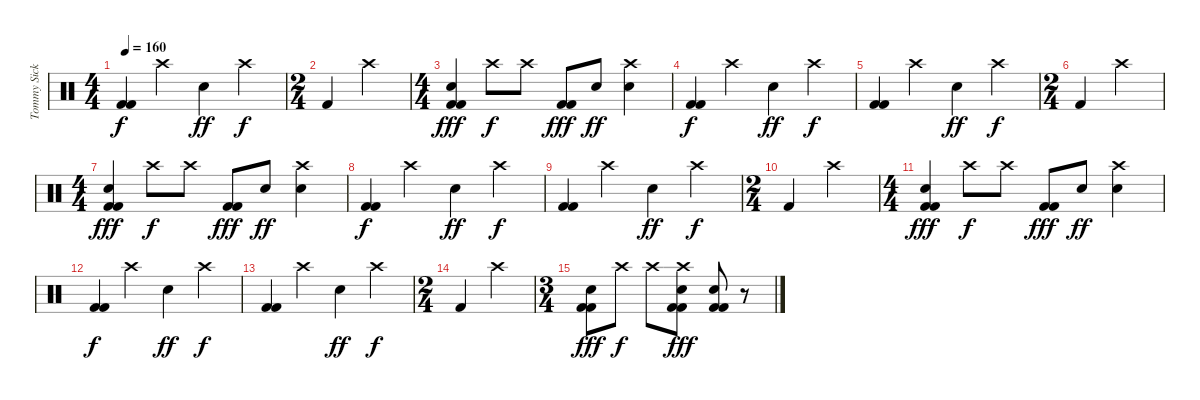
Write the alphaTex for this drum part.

\track ("Tommy Sickles" "Tommy Sick") {instrument percussion}
\staff {score}
\articulation defaults
\ts (4 4)
\tempo 160
\clef neutral
\ks c
("Kick (hit) 2" "Kick (hit) 2").4{dy f} "Crash high (hit)".4 "Electric Snare (hit)".4{dy ff} "Crash high (hit)".4{dy f} |
\ts (2 4)
"Kick (hit) 2".4 "Crash high (hit)".4 |
\ts (4 4)
("Kick (hit) 2" "Kick (hit) 2" "Electric Snare (hit)").4{dy fff} "Crash high (hit)".8{dy f} "Crash high (hit)".8 ("Kick (hit) 2" "Kick (hit) 2").8{dy fff} "Electric Snare (hit)".8{dy ff} ("Crash high (hit)" "Electric Snare (hit)").4 |
("Kick (hit) 2" "Kick (hit) 2").4{dy f} "Crash high (hit)".4 "Electric Snare (hit)".4{dy ff} "Crash high (hit)".4{dy f} |
("Kick (hit) 2" "Kick (hit) 2").4 "Crash high (hit)".4 "Electric Snare (hit)".4{dy ff} "Crash high (hit)".4{dy f} |
\ts (2 4)
"Kick (hit) 2".4 "Crash high (hit)".4 |
\ts (4 4)
("Kick (hit) 2" "Kick (hit) 2" "Electric Snare (hit)").4{dy fff} "Crash high (hit)".8{dy f} "Crash high (hit)".8 ("Kick (hit) 2" "Kick (hit) 2").8{dy fff} "Electric Snare (hit)".8{dy ff} ("Crash high (hit)" "Electric Snare (hit)").4 |
("Kick (hit) 2" "Kick (hit) 2").4{dy f} "Crash high (hit)".4 "Electric Snare (hit)".4{dy ff} "Crash high (hit)".4{dy f} |
("Kick (hit) 2" "Kick (hit) 2").4 "Crash high (hit)".4 "Electric Snare (hit)".4{dy ff} "Crash high (hit)".4{dy f} |
\ts (2 4)
"Kick (hit) 2".4 "Crash high (hit)".4 |
\ts (4 4)
("Kick (hit) 2" "Kick (hit) 2" "Electric Snare (hit)").4{dy fff} "Crash high (hit)".8{dy f} "Crash high (hit)".8 ("Kick (hit) 2" "Kick (hit) 2").8{dy fff} "Electric Snare (hit)".8{dy ff} ("Crash high (hit)" "Electric Snare (hit)").4 |
("Kick (hit) 2" "Kick (hit) 2").4{dy f} "Crash high (hit)".4 "Electric Snare (hit)".4{dy ff} "Crash high (hit)".4{dy f} |
("Kick (hit) 2" "Kick (hit) 2").4 "Crash high (hit)".4 "Electric Snare (hit)".4{dy ff} "Crash high (hit)".4{dy f} |
\ts (2 4)
"Kick (hit) 2".4 "Crash high (hit)".4 |
\ts (3 4)
("Kick (hit) 2" "Kick (hit) 2" "Electric Snare (hit)").8{dy fff} "Crash high (hit)".8{dy f} "Crash high (hit)".8 ("Crash high (hit)" "Kick (hit) 2" "Kick (hit) 2" "Electric Snare (hit)").8{dy fff} ("Kick (hit) 2" "Kick (hit) 2" "Electric Snare (hit)").8 r.8
